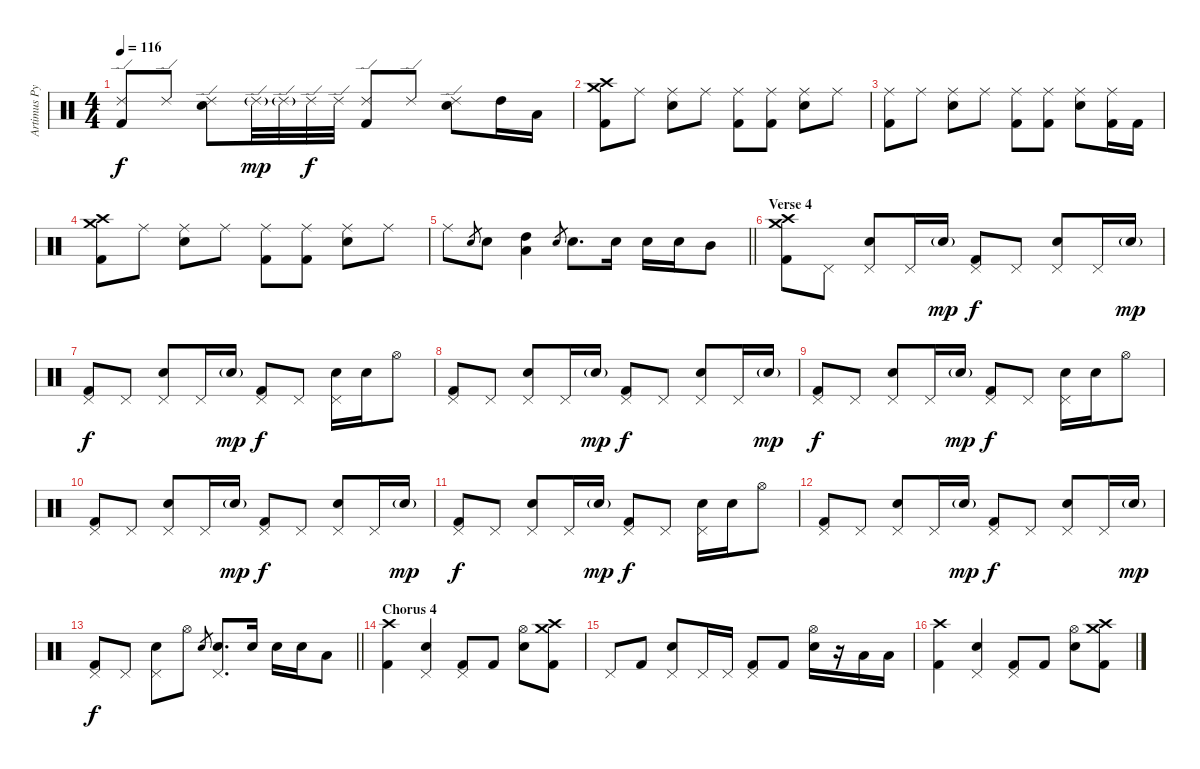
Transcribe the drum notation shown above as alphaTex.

\track ("Artimus Pyle - Drums and Percussion" "Artimus Py") {instrument percussion}
\staff {score}
\articulation defaults
\ts (4 4)
\tempo 116
\clef neutral
\ks c
("Ride (edge) 2" "Kick (hit) 2").8{dy f} "Ride (edge) 2".8 ("Ride (edge) 2" "Snare (hit) 2").8 "Ride (edge) 2"{g}.32{dy mp} "Ride (edge) 2"{g}.32 "Ride (edge) 2".32{dy f} "Ride (edge) 2".32 ("Ride (edge) 2" "Kick (hit) 2").8 "Ride (edge) 2".8 ("Ride (edge) 2" "Snare (hit) 2").8 "High Tom (hit)".16 "Low Floor Tom (hit)".16 |
("Crash medium (hit)" "Crash high (hit)" "Kick (hit) 2").8 "Ride (middle)".8 ("Ride (middle)" "Snare (hit) 2").8 "Ride (middle)".8 ("Ride (middle)" "Kick (hit) 2").8 ("Ride (middle)" "Kick (hit) 2").8 ("Ride (middle)" "Snare (hit) 2").8 "Ride (middle)".8 |
("Ride (middle)" "Kick (hit) 2").8 "Ride (middle)".8 ("Ride (middle)" "Snare (hit) 2").8 "Ride (middle)".8 ("Ride (middle)" "Kick (hit) 2").8 ("Ride (middle)" "Kick (hit) 2").8 ("Ride (middle)" "Snare (hit) 2").8 ("Ride (middle)" "Kick (hit) 2").16 "Kick (hit) 2".16 |
("Crash medium (hit)" "Crash high (hit)" "Kick (hit) 2").8 "Ride (middle)".8 ("Ride (middle)" "Snare (hit) 2").8 "Ride (middle)".8 ("Ride (middle)" "Kick (hit) 2").8 ("Ride (middle)" "Kick (hit) 2").8 ("Ride (middle)" "Snare (hit) 2").8 "Ride (middle)".8 |
\barLineRight lightlight "Ride (middle)".8 "Snare (hit) 2".8{gr} "Snare (hit) 2".8
("High Tom (hit)" "Low Floor Tom (hit)").4 "Snare (hit) 2".8{gr} "Snare (hit) 2".8{d} "Snare (hit) 2".16 "Snare (hit) 2".16 "Snare (hit) 2".16 "Mid Tom (hit)".8 |
\section ("" "Verse 4")
("Crash medium (hit)" "Crash high (hit)" "Kick (hit) 2").8 "Pedal Hi-Hat (hit)".8 ("Snare (hit) 2" "Pedal Hi-Hat (hit)").8 "Pedal Hi-Hat (hit)".16 "Snare (hit) 2"{g}.16{dy mp} ("Pedal Hi-Hat (hit)" "Kick (hit) 2").8{dy f} "Pedal Hi-Hat (hit)".8 ("Snare (hit) 2" "Pedal Hi-Hat (hit)").8 "Pedal Hi-Hat (hit)".16 "Snare (hit) 2"{g}.16{dy mp} |
("Pedal Hi-Hat (hit)" "Kick (hit) 2").8{dy f} "Pedal Hi-Hat (hit)".8 ("Snare (hit) 2" "Pedal Hi-Hat (hit)").8 "Pedal Hi-Hat (hit)".16 "Snare (hit) 2"{g}.16{dy mp} ("Pedal Hi-Hat (hit)" "Kick (hit) 2").8{dy f} "Pedal Hi-Hat (hit)".8 ("Snare (hit) 2" "Pedal Hi-Hat (hit)").16 "Snare (hit) 2".16 "Hi-Hat (open)".8 |
("Pedal Hi-Hat (hit)" "Kick (hit) 2").8 "Pedal Hi-Hat (hit)".8 ("Snare (hit) 2" "Pedal Hi-Hat (hit)").8 "Pedal Hi-Hat (hit)".16 "Snare (hit) 2"{g}.16{dy mp} ("Pedal Hi-Hat (hit)" "Kick (hit) 2").8{dy f} "Pedal Hi-Hat (hit)".8 ("Snare (hit) 2" "Pedal Hi-Hat (hit)").8 "Pedal Hi-Hat (hit)".16 "Snare (hit) 2"{g}.16{dy mp} |
("Pedal Hi-Hat (hit)" "Kick (hit) 2").8{dy f} "Pedal Hi-Hat (hit)".8 ("Snare (hit) 2" "Pedal Hi-Hat (hit)").8 "Pedal Hi-Hat (hit)".16 "Snare (hit) 2"{g}.16{dy mp} ("Pedal Hi-Hat (hit)" "Kick (hit) 2").8{dy f} "Pedal Hi-Hat (hit)".8 ("Snare (hit) 2" "Pedal Hi-Hat (hit)").16 "Snare (hit) 2".16 "Hi-Hat (open)".8 |
("Pedal Hi-Hat (hit)" "Kick (hit) 2").8 "Pedal Hi-Hat (hit)".8 ("Snare (hit) 2" "Pedal Hi-Hat (hit)").8 "Pedal Hi-Hat (hit)".16 "Snare (hit) 2"{g}.16{dy mp} ("Pedal Hi-Hat (hit)" "Kick (hit) 2").8{dy f} "Pedal Hi-Hat (hit)".8 ("Snare (hit) 2" "Pedal Hi-Hat (hit)").8 "Pedal Hi-Hat (hit)".16 "Snare (hit) 2"{g}.16{dy mp} |
("Pedal Hi-Hat (hit)" "Kick (hit) 2").8{dy f} "Pedal Hi-Hat (hit)".8 ("Snare (hit) 2" "Pedal Hi-Hat (hit)").8 "Pedal Hi-Hat (hit)".16 "Snare (hit) 2"{g}.16{dy mp} ("Pedal Hi-Hat (hit)" "Kick (hit) 2").8{dy f} "Pedal Hi-Hat (hit)".8 ("Snare (hit) 2" "Pedal Hi-Hat (hit)").16 "Snare (hit) 2".16 "Hi-Hat (open)".8 |
("Pedal Hi-Hat (hit)" "Kick (hit) 2").8 "Pedal Hi-Hat (hit)".8 ("Snare (hit) 2" "Pedal Hi-Hat (hit)").8 "Pedal Hi-Hat (hit)".16 "Snare (hit) 2"{g}.16{dy mp} ("Pedal Hi-Hat (hit)" "Kick (hit) 2").8{dy f} "Pedal Hi-Hat (hit)".8 ("Snare (hit) 2" "Pedal Hi-Hat (hit)").8 "Pedal Hi-Hat (hit)".16 "Snare (hit) 2"{g}.16{dy mp} |
\barLineRight lightlight
("Pedal Hi-Hat (hit)" "Kick (hit) 2").8{dy f} "Pedal Hi-Hat (hit)".8 ("Snare (hit) 2" "Pedal Hi-Hat (hit)").8 "Hi-Hat (open)".8 "Snare (hit) 2".8{gr} ("Snare (hit) 2" "Pedal Hi-Hat (hit)").8{d} "Snare (hit) 2".16 "Snare (hit) 2".16 "Snare (hit) 2".16 "Low Floor Tom (hit)".8 |
\section ("" "Chorus 4")
("Crash high (hit)" "Kick (hit) 2").4 ("Snare (hit) 2" "Pedal Hi-Hat (hit)").4 ("Pedal Hi-Hat (hit)" "Kick (hit) 2").8 "Kick (hit) 2".8 ("Snare (hit) 2" "Hi-Hat (open)").8 ("Crash medium (hit)" "Crash high (hit)" "Kick (hit) 2").8 |
"Pedal Hi-Hat (hit)".8 "Kick (hit) 2".8 ("Snare (hit) 2" "Pedal Hi-Hat (hit)").8 "Pedal Hi-Hat (hit)".16 "Pedal Hi-Hat (hit)".16 ("Pedal Hi-Hat (hit)" "Kick (hit) 2").8 "Kick (hit) 2".8 ("Snare (hit) 2" "Hi-Hat (open)").16 r.16 "Low Floor Tom (hit)".16 "Low Floor Tom (hit)".16 |
("Crash high (hit)" "Kick (hit) 2").4 ("Snare (hit) 2" "Pedal Hi-Hat (hit)").4 ("Pedal Hi-Hat (hit)" "Kick (hit) 2").8 "Kick (hit) 2".8 ("Snare (hit) 2" "Hi-Hat (open)").8 ("Crash medium (hit)" "Crash high (hit)" "Kick (hit) 2").8
